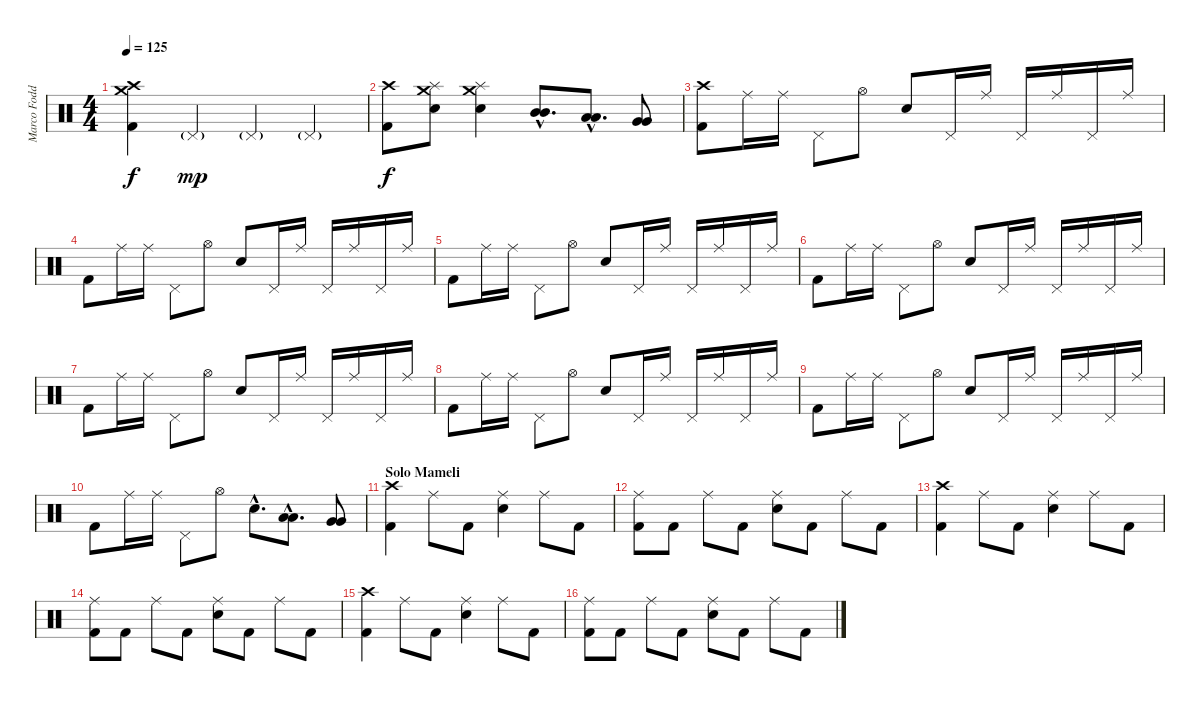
\track ("Marco Foddis " "Marco Fodd") {instrument percussion}
\staff {score}
\articulation defaults
\ts (4 4)
\tempo 125
\clef neutral
\ks c
("Crash high (hit)" "Crash medium (hit)" "Kick (hit) 2").4{dy f} "Pedal Hi-Hat (hit)"{g}.4{dy mp} "Pedal Hi-Hat (hit)"{g}.4 "Pedal Hi-Hat (hit)"{g}.4 |
("Crash high (hit)" "Kick (hit) 2").8{dy f} ("Crash medium (hit)" "Splash (hit)" "Electric Snare (hit)").8 ("Crash medium (hit)" "Splash (hit)" "Electric Snare (hit)").4 ("Mid Tom (hit)"{hac} "Mid Tom (hit)"{hac}).8{d} ("Low Tom (hit)"{hac} "Low Tom (hit)"{hac}).8{d} ("Very Low Tom (hit)" "Very Low Tom (hit)").8 |
("Crash high (hit)" "Kick (hit) 2").8 "Ride (middle)".16 "Ride (middle)".16 "Pedal Hi-Hat (hit)".8 "Hi-Hat (open)".8 "Electric Snare (hit)".8 "Pedal Hi-Hat (hit)".16 "Ride (middle)".16 "Pedal Hi-Hat (hit)".16 "Ride (middle)".16 "Pedal Hi-Hat (hit)".16 "Ride (middle)".16 |
"Kick (hit) 2".8 "Ride (middle)".16 "Ride (middle)".16 "Pedal Hi-Hat (hit)".8 "Hi-Hat (open)".8 "Electric Snare (hit)".8 "Pedal Hi-Hat (hit)".16 "Ride (middle)".16 "Pedal Hi-Hat (hit)".16 "Ride (middle)".16 "Pedal Hi-Hat (hit)".16 "Ride (middle)".16 |
"Kick (hit) 2".8 "Ride (middle)".16 "Ride (middle)".16 "Pedal Hi-Hat (hit)".8 "Hi-Hat (open)".8 "Electric Snare (hit)".8 "Pedal Hi-Hat (hit)".16 "Ride (middle)".16 "Pedal Hi-Hat (hit)".16 "Ride (middle)".16 "Pedal Hi-Hat (hit)".16 "Ride (middle)".16 |
"Kick (hit) 2".8 "Ride (middle)".16 "Ride (middle)".16 "Pedal Hi-Hat (hit)".8 "Hi-Hat (open)".8 "Electric Snare (hit)".8 "Pedal Hi-Hat (hit)".16 "Ride (middle)".16 "Pedal Hi-Hat (hit)".16 "Ride (middle)".16 "Pedal Hi-Hat (hit)".16 "Ride (middle)".16 |
"Kick (hit) 2".8 "Ride (middle)".16 "Ride (middle)".16 "Pedal Hi-Hat (hit)".8 "Hi-Hat (open)".8 "Electric Snare (hit)".8 "Pedal Hi-Hat (hit)".16 "Ride (middle)".16 "Pedal Hi-Hat (hit)".16 "Ride (middle)".16 "Pedal Hi-Hat (hit)".16 "Ride (middle)".16 |
"Kick (hit) 2".8 "Ride (middle)".16 "Ride (middle)".16 "Pedal Hi-Hat (hit)".8 "Hi-Hat (open)".8 "Electric Snare (hit)".8 "Pedal Hi-Hat (hit)".16 "Ride (middle)".16 "Pedal Hi-Hat (hit)".16 "Ride (middle)".16 "Pedal Hi-Hat (hit)".16 "Ride (middle)".16 |
"Kick (hit) 2".8 "Ride (middle)".16 "Ride (middle)".16 "Pedal Hi-Hat (hit)".8 "Hi-Hat (open)".8 "Electric Snare (hit)".8 "Pedal Hi-Hat (hit)".16 "Ride (middle)".16 "Pedal Hi-Hat (hit)".16 "Ride (middle)".16 "Pedal Hi-Hat (hit)".16 "Ride (middle)".16 |
"Kick (hit) 2".8 "Ride (middle)".16 "Ride (middle)".16 "Pedal Hi-Hat (hit)".8 "Hi-Hat (open)".8 "Electric Snare (hit)"{hac}.8{d} ("Low Tom (hit)"{hac} "Low Tom (hit)"{hac}).8{d} ("Very Low Tom (hit)" "Very Low Tom (hit)").8 |
\section ("" "Solo Mameli")
("Crash high (hit)" "Kick (hit) 2").4 "Ride (middle)".8 "Kick (hit) 2".8 ("Ride (middle)" "Electric Snare (hit)").4 "Ride (middle)".8 "Kick (hit) 2".8 |
("Ride (middle)" "Kick (hit) 2").8 "Kick (hit) 2".8 "Ride (middle)".8 "Kick (hit) 2".8 ("Ride (middle)" "Electric Snare (hit)").8 "Kick (hit) 2".8 "Ride (middle)".8 "Kick (hit) 2".8 |
("Crash high (hit)" "Kick (hit) 2").4 "Ride (middle)".8 "Kick (hit) 2".8 ("Ride (middle)" "Electric Snare (hit)").4 "Ride (middle)".8 "Kick (hit) 2".8 |
("Ride (middle)" "Kick (hit) 2").8 "Kick (hit) 2".8 "Ride (middle)".8 "Kick (hit) 2".8 ("Ride (middle)" "Electric Snare (hit)").8 "Kick (hit) 2".8 "Ride (middle)".8 "Kick (hit) 2".8 |
("Crash high (hit)" "Kick (hit) 2").4 "Ride (middle)".8 "Kick (hit) 2".8 ("Ride (middle)" "Electric Snare (hit)").4 "Ride (middle)".8 "Kick (hit) 2".8 |
("Ride (middle)" "Kick (hit) 2").8 "Kick (hit) 2".8 "Ride (middle)".8 "Kick (hit) 2".8 ("Ride (middle)" "Electric Snare (hit)").8 "Kick (hit) 2".8 "Ride (middle)".8 "Kick (hit) 2".8
